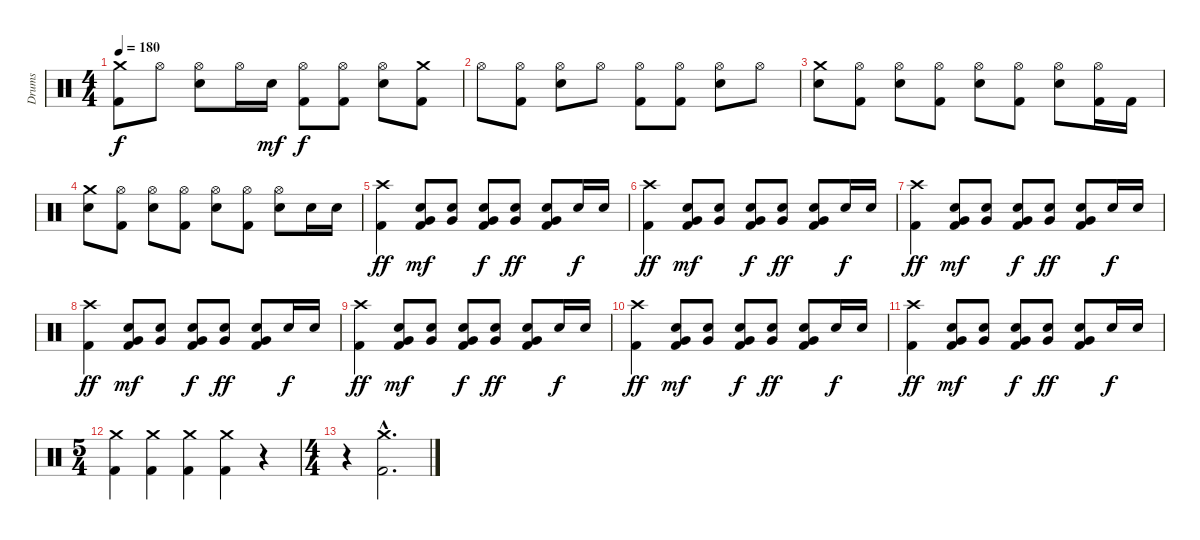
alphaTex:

\track ("Drums" "Drums") {instrument percussion}
\staff {score}
\articulation defaults
\ts (4 4)
\tempo 180
\clef neutral
\ks c
("Crash medium (hit)" "Kick (hit) 2").8{dy f} "Hi-Hat (open)".8 ("Hi-Hat (open)" "Electric Snare (hit)").8 "Hi-Hat (open)".16 "Electric Snare (hit)".16{dy mf} ("Hi-Hat (open)" "Kick (hit) 2").8{dy f} ("Hi-Hat (open)" "Kick (hit) 2").8 ("Hi-Hat (open)" "Electric Snare (hit)").8 ("Crash medium (hit)" "Kick (hit) 2").8 |
"Hi-Hat (open)".8 ("Hi-Hat (open)" "Kick (hit) 2").8 ("Hi-Hat (open)" "Electric Snare (hit)").8 "Hi-Hat (open)".8 ("Hi-Hat (open)" "Kick (hit) 2").8 ("Hi-Hat (open)" "Kick (hit) 2").8 ("Hi-Hat (open)" "Electric Snare (hit)").8 "Hi-Hat (open)".8 |
("Crash medium (hit)" "Electric Snare (hit)").8 ("Hi-Hat (open)" "Kick (hit) 2").8 ("Hi-Hat (open)" "Electric Snare (hit)").8 ("Hi-Hat (open)" "Kick (hit) 2").8 ("Hi-Hat (open)" "Electric Snare (hit)").8 ("Hi-Hat (open)" "Kick (hit) 2").8 ("Hi-Hat (open)" "Electric Snare (hit)").8 ("Hi-Hat (open)" "Kick (hit) 2").16 "Kick (hit) 2".16 |
("Crash medium (hit)" "Electric Snare (hit)").8 ("Hi-Hat (open)" "Kick (hit) 2").8 ("Hi-Hat (open)" "Electric Snare (hit)").8 ("Hi-Hat (open)" "Kick (hit) 2").8 ("Hi-Hat (open)" "Electric Snare (hit)").8 ("Hi-Hat (open)" "Kick (hit) 2").8 ("Hi-Hat (open)" "Electric Snare (hit)").8 "Electric Snare (hit)".16 "Electric Snare (hit)".16 |
("Crash high (hit)" "Kick (hit) 2").4{dy ff} ("Very Low Tom (hit)" "Electric Snare (hit)" "Kick (hit) 2").8{dy mf} ("Very Low Tom (hit)" "Electric Snare (hit)").8 ("Very Low Tom (hit)" "Electric Snare (hit)" "Kick (hit) 2").8{dy f} ("Very Low Tom (hit)" "Electric Snare (hit)").8{dy ff} ("Very Low Tom (hit)" "Electric Snare (hit)" "Kick (hit) 2").8 "Electric Snare (hit)".16{dy f} "Electric Snare (hit)".16 |
("Crash high (hit)" "Kick (hit) 2").4{dy ff} ("Very Low Tom (hit)" "Electric Snare (hit)" "Kick (hit) 2").8{dy mf} ("Very Low Tom (hit)" "Electric Snare (hit)").8 ("Very Low Tom (hit)" "Electric Snare (hit)" "Kick (hit) 2").8{dy f} ("Very Low Tom (hit)" "Electric Snare (hit)").8{dy ff} ("Very Low Tom (hit)" "Electric Snare (hit)" "Kick (hit) 2").8 "Electric Snare (hit)".16{dy f} "Electric Snare (hit)".16 |
("Crash high (hit)" "Kick (hit) 2").4{dy ff} ("Very Low Tom (hit)" "Electric Snare (hit)" "Kick (hit) 2").8{dy mf} ("Very Low Tom (hit)" "Electric Snare (hit)").8 ("Very Low Tom (hit)" "Electric Snare (hit)" "Kick (hit) 2").8{dy f} ("Very Low Tom (hit)" "Electric Snare (hit)").8{dy ff} ("Very Low Tom (hit)" "Electric Snare (hit)" "Kick (hit) 2").8 "Electric Snare (hit)".16{dy f} "Electric Snare (hit)".16 |
("Crash high (hit)" "Kick (hit) 2").4{dy ff} ("Very Low Tom (hit)" "Electric Snare (hit)" "Kick (hit) 2").8{dy mf} ("Very Low Tom (hit)" "Electric Snare (hit)").8 ("Very Low Tom (hit)" "Electric Snare (hit)" "Kick (hit) 2").8{dy f} ("Very Low Tom (hit)" "Electric Snare (hit)").8{dy ff} ("Very Low Tom (hit)" "Electric Snare (hit)" "Kick (hit) 2").8 "Electric Snare (hit)".16{dy f} "Electric Snare (hit)".16 |
("Crash high (hit)" "Kick (hit) 2").4{dy ff} ("Very Low Tom (hit)" "Electric Snare (hit)" "Kick (hit) 2").8{dy mf} ("Very Low Tom (hit)" "Electric Snare (hit)").8 ("Very Low Tom (hit)" "Electric Snare (hit)" "Kick (hit) 2").8{dy f} ("Very Low Tom (hit)" "Electric Snare (hit)").8{dy ff} ("Very Low Tom (hit)" "Electric Snare (hit)" "Kick (hit) 2").8 "Electric Snare (hit)".16{dy f} "Electric Snare (hit)".16 |
("Crash high (hit)" "Kick (hit) 2").4{dy ff} ("Very Low Tom (hit)" "Electric Snare (hit)" "Kick (hit) 2").8{dy mf} ("Very Low Tom (hit)" "Electric Snare (hit)").8 ("Very Low Tom (hit)" "Electric Snare (hit)" "Kick (hit) 2").8{dy f} ("Very Low Tom (hit)" "Electric Snare (hit)").8{dy ff} ("Very Low Tom (hit)" "Electric Snare (hit)" "Kick (hit) 2").8 "Electric Snare (hit)".16{dy f} "Electric Snare (hit)".16 |
("Crash high (hit)" "Kick (hit) 2").4{dy ff} ("Very Low Tom (hit)" "Electric Snare (hit)" "Kick (hit) 2").8{dy mf} ("Very Low Tom (hit)" "Electric Snare (hit)").8 ("Very Low Tom (hit)" "Electric Snare (hit)" "Kick (hit) 2").8{dy f} ("Very Low Tom (hit)" "Electric Snare (hit)").8{dy ff} ("Very Low Tom (hit)" "Electric Snare (hit)" "Kick (hit) 2").8 "Electric Snare (hit)".16{dy f} "Electric Snare (hit)".16 |
\ts (5 4)
("Crash medium (hit)" "Kick (hit) 2").4 ("Crash medium (hit)" "Kick (hit) 2").4 ("Crash medium (hit)" "Kick (hit) 2").4 ("Crash medium (hit)" "Kick (hit) 2").4 r.4 |
\ts (4 4)
r.4 ("Crash medium (hit)"{hac} "Kick (hit) 2"{hac}).2{d}
